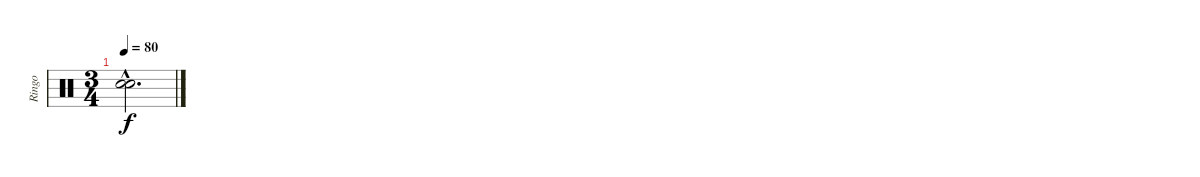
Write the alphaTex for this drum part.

\track ("Ringo" "Ringo") {instrument percussion}
\staff {score}
\articulation defaults
\ts (3 4)
\tempo 80
\clef neutral
\ks c
("Snare (hit)"{hac t} "Snare (hit)"{hac t}).2{d dy f}
